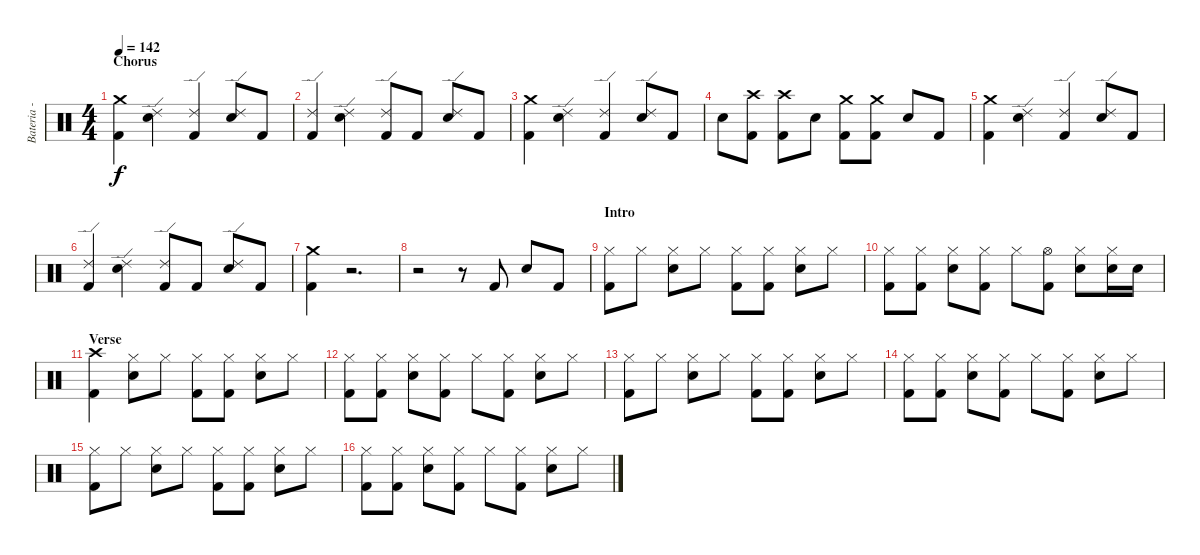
\track ("Bateria - Larzon" "Bateria - ") {instrument percussion}
\staff {score}
\articulation defaults
\ts (4 4)
\section ("" "Chorus")
\tempo 142
\clef neutral
\ks c
("Crash medium (hit)" "Kick (hit) 2").4{dy f} ("Snare (hit) 2" "Ride (edge) 2").4 ("Kick (hit) 2" "Ride (edge) 2").4 ("Snare (hit) 2" "Ride (edge) 2").8 "Kick (hit) 2".8 |
("Kick (hit) 2" "Ride (edge) 2").4 ("Snare (hit) 2" "Ride (edge) 2").4 ("Kick (hit) 2" "Ride (edge) 2").8 "Kick (hit) 2".8 ("Snare (hit) 2" "Ride (edge) 2").8 "Kick (hit) 2".8 |
("Crash medium (hit)" "Kick (hit) 2").4 ("Snare (hit) 2" "Ride (edge) 2").4 ("Kick (hit) 2" "Ride (edge) 2").4 ("Snare (hit) 2" "Ride (edge) 2").8 "Kick (hit) 2".8 |
"Snare (hit) 2".8 ("Crash high (hit)" "Kick (hit) 2").8 ("Crash high (hit)" "Kick (hit) 2").8 "Snare (hit) 2".8 ("Crash medium (hit)" "Kick (hit) 2").8 ("Kick (hit) 2" "Crash medium (hit)").8 "Snare (hit) 2".8 "Kick (hit) 2".8 |
("Crash medium (hit)" "Kick (hit) 2").4 ("Snare (hit) 2" "Ride (edge) 2").4 ("Kick (hit) 2" "Ride (edge) 2").4 ("Snare (hit) 2" "Ride (edge) 2").8 "Kick (hit) 2".8 |
("Kick (hit) 2" "Ride (edge) 2").4 ("Snare (hit) 2" "Ride (edge) 2").4 ("Kick (hit) 2" "Ride (edge) 2").8 "Kick (hit) 2".8 ("Snare (hit) 2" "Ride (edge) 2").8 "Kick (hit) 2".8 |
("Crash medium (hit)" "Kick (hit) 2").4 r.2{d} |
r.2 r.8 "Kick (hit) 2".8 "Snare (hit) 2".8 "Kick (hit) 2".8 |
\section ("" "Intro")
("Kick (hit) 2" "Hi-Hat (closed)").8 "Hi-Hat (closed)".8 ("Hi-Hat (closed)" "Snare (hit) 2").8 "Hi-Hat (closed)".8 ("Hi-Hat (closed)" "Kick (hit) 2").8 ("Hi-Hat (closed)" "Kick (hit) 2").8 ("Hi-Hat (closed)" "Snare (hit) 2").8 "Hi-Hat (closed)".8 |
("Hi-Hat (closed)" "Kick (hit) 2").8 ("Hi-Hat (closed)" "Kick (hit) 2").8 ("Hi-Hat (closed)" "Snare (hit) 2").8 ("Hi-Hat (closed)" "Kick (hit) 2").8 "Hi-Hat (closed)".8 ("Kick (hit) 2" "Hi-Hat (open)").8 ("Hi-Hat (closed)" "Snare (hit) 2").8 ("Hi-Hat (closed)" "Snare (hit) 2").16 "Snare (hit) 2".16 |
\section ("" "Verse")
("Crash high (hit)" "Kick (hit) 2").4 ("Hi-Hat (closed)" "Snare (hit) 2").8 "Hi-Hat (closed)".8 ("Hi-Hat (closed)" "Kick (hit) 2").8 ("Hi-Hat (closed)" "Kick (hit) 2").8 ("Hi-Hat (closed)" "Snare (hit) 2").8 "Hi-Hat (closed)".8 |
("Hi-Hat (closed)" "Kick (hit) 2").8 ("Hi-Hat (closed)" "Kick (hit) 2").8 ("Hi-Hat (closed)" "Snare (hit) 2").8 ("Hi-Hat (closed)" "Kick (hit) 2").8 "Hi-Hat (closed)".8 ("Hi-Hat (closed)" "Kick (hit) 2").8 ("Hi-Hat (closed)" "Snare (hit) 2").8 "Hi-Hat (closed)".8 |
("Kick (hit) 2" "Hi-Hat (closed)").8 "Hi-Hat (closed)".8 ("Hi-Hat (closed)" "Snare (hit) 2").8 "Hi-Hat (closed)".8 ("Hi-Hat (closed)" "Kick (hit) 2").8 ("Hi-Hat (closed)" "Kick (hit) 2").8 ("Hi-Hat (closed)" "Snare (hit) 2").8 "Hi-Hat (closed)".8 |
("Hi-Hat (closed)" "Kick (hit) 2").8 ("Hi-Hat (closed)" "Kick (hit) 2").8 ("Hi-Hat (closed)" "Snare (hit) 2").8 ("Hi-Hat (closed)" "Kick (hit) 2").8 "Hi-Hat (closed)".8 ("Kick (hit) 2" "Hi-Hat (closed)").8 ("Hi-Hat (closed)" "Snare (hit) 2").8 "Hi-Hat (closed)".8 |
("Kick (hit) 2" "Hi-Hat (closed)").8 "Hi-Hat (closed)".8 ("Hi-Hat (closed)" "Snare (hit) 2").8 "Hi-Hat (closed)".8 ("Hi-Hat (closed)" "Kick (hit) 2").8 ("Hi-Hat (closed)" "Kick (hit) 2").8 ("Hi-Hat (closed)" "Snare (hit) 2").8 "Hi-Hat (closed)".8 |
("Hi-Hat (closed)" "Kick (hit) 2").8 ("Hi-Hat (closed)" "Kick (hit) 2").8 ("Hi-Hat (closed)" "Snare (hit) 2").8 ("Hi-Hat (closed)" "Kick (hit) 2").8 "Hi-Hat (closed)".8 ("Kick (hit) 2" "Hi-Hat (closed)").8 ("Hi-Hat (closed)" "Snare (hit) 2").8 "Hi-Hat (closed)".8
